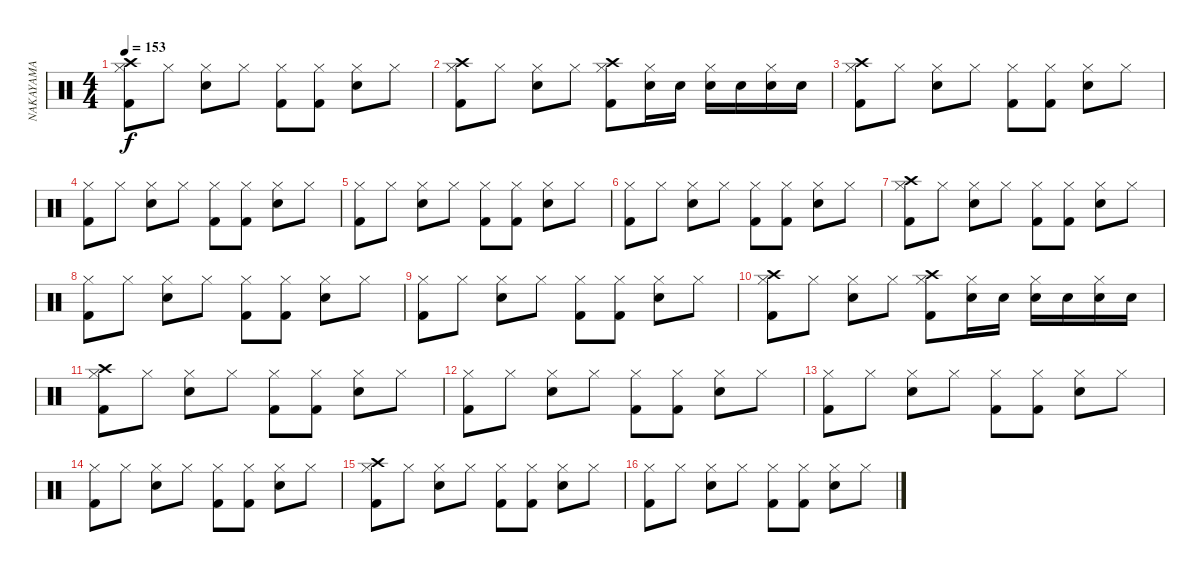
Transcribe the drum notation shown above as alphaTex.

\track ("NAKAYAMA" "NAKAYAMA") {instrument percussion}
\staff {score}
\articulation defaults
\ts (4 4)
\tempo 153
\clef neutral
\ks c
("Crash high (hit)" "Hi-Hat (closed)" "Kick (hit) 2").8{dy f} "Hi-Hat (closed)".8 ("Hi-Hat (closed)" "Snare (hit) 2").8 "Hi-Hat (closed)".8 ("Hi-Hat (closed)" "Kick (hit) 2").8 ("Hi-Hat (closed)" "Kick (hit) 2").8 ("Hi-Hat (closed)" "Snare (hit) 2").8 "Hi-Hat (closed)".8 |
("Crash high (hit)" "Hi-Hat (closed)" "Kick (hit) 2").8 "Hi-Hat (closed)".8 ("Hi-Hat (closed)" "Snare (hit) 2").8 "Hi-Hat (closed)".8 ("Crash high (hit)" "Hi-Hat (closed)" "Kick (hit) 2").8 ("Hi-Hat (closed)" "Snare (hit) 2").16 "Snare (hit) 2".16 ("Hi-Hat (closed)" "Snare (hit) 2").16 "Snare (hit) 2".16 ("Hi-Hat (closed)" "Snare (hit) 2").16 "Snare (hit) 2".16 |
("Crash high (hit)" "Hi-Hat (closed)" "Kick (hit) 2").8 "Hi-Hat (closed)".8 ("Hi-Hat (closed)" "Snare (hit) 2").8 "Hi-Hat (closed)".8 ("Hi-Hat (closed)" "Kick (hit) 2").8 ("Hi-Hat (closed)" "Kick (hit) 2").8 ("Hi-Hat (closed)" "Snare (hit) 2").8 "Hi-Hat (closed)".8 |
("Hi-Hat (closed)" "Kick (hit) 2").8 "Hi-Hat (closed)".8 ("Hi-Hat (closed)" "Snare (hit) 2").8 "Hi-Hat (closed)".8 ("Hi-Hat (closed)" "Kick (hit) 2").8 ("Hi-Hat (closed)" "Kick (hit) 2").8 ("Hi-Hat (closed)" "Snare (hit) 2").8 "Hi-Hat (closed)".8 |
("Hi-Hat (closed)" "Kick (hit) 2").8 "Hi-Hat (closed)".8 ("Hi-Hat (closed)" "Snare (hit) 2").8 "Hi-Hat (closed)".8 ("Hi-Hat (closed)" "Kick (hit) 2").8 ("Hi-Hat (closed)" "Kick (hit) 2").8 ("Hi-Hat (closed)" "Snare (hit) 2").8 "Hi-Hat (closed)".8 |
("Hi-Hat (closed)" "Kick (hit) 2").8 "Hi-Hat (closed)".8 ("Hi-Hat (closed)" "Snare (hit) 2").8 "Hi-Hat (closed)".8 ("Hi-Hat (closed)" "Kick (hit) 2").8 ("Hi-Hat (closed)" "Kick (hit) 2").8 ("Hi-Hat (closed)" "Snare (hit) 2").8 "Hi-Hat (closed)".8 |
("Crash high (hit)" "Hi-Hat (closed)" "Kick (hit) 2").8 "Hi-Hat (closed)".8 ("Hi-Hat (closed)" "Snare (hit) 2").8 "Hi-Hat (closed)".8 ("Hi-Hat (closed)" "Kick (hit) 2").8 ("Hi-Hat (closed)" "Kick (hit) 2").8 ("Hi-Hat (closed)" "Snare (hit) 2").8 "Hi-Hat (closed)".8 |
("Hi-Hat (closed)" "Kick (hit) 2").8 "Hi-Hat (closed)".8 ("Hi-Hat (closed)" "Snare (hit) 2").8 "Hi-Hat (closed)".8 ("Hi-Hat (closed)" "Kick (hit) 2").8 ("Hi-Hat (closed)" "Kick (hit) 2").8 ("Hi-Hat (closed)" "Snare (hit) 2").8 "Hi-Hat (closed)".8 |
("Hi-Hat (closed)" "Kick (hit) 2").8 "Hi-Hat (closed)".8 ("Hi-Hat (closed)" "Snare (hit) 2").8 "Hi-Hat (closed)".8 ("Hi-Hat (closed)" "Kick (hit) 2").8 ("Hi-Hat (closed)" "Kick (hit) 2").8 ("Hi-Hat (closed)" "Snare (hit) 2").8 "Hi-Hat (closed)".8 |
("Crash high (hit)" "Hi-Hat (closed)" "Kick (hit) 2").8 "Hi-Hat (closed)".8 ("Hi-Hat (closed)" "Snare (hit) 2").8 "Hi-Hat (closed)".8 ("Crash high (hit)" "Hi-Hat (closed)" "Kick (hit) 2").8 ("Hi-Hat (closed)" "Snare (hit) 2").16 "Snare (hit) 2".16 ("Hi-Hat (closed)" "Snare (hit) 2").16 "Snare (hit) 2".16 ("Hi-Hat (closed)" "Snare (hit) 2").16 "Snare (hit) 2".16 |
("Crash high (hit)" "Hi-Hat (closed)" "Kick (hit) 2").8 "Hi-Hat (closed)".8 ("Hi-Hat (closed)" "Snare (hit) 2").8 "Hi-Hat (closed)".8 ("Hi-Hat (closed)" "Kick (hit) 2").8 ("Hi-Hat (closed)" "Kick (hit) 2").8 ("Hi-Hat (closed)" "Snare (hit) 2").8 "Hi-Hat (closed)".8 |
("Hi-Hat (closed)" "Kick (hit) 2").8 "Hi-Hat (closed)".8 ("Hi-Hat (closed)" "Snare (hit) 2").8 "Hi-Hat (closed)".8 ("Hi-Hat (closed)" "Kick (hit) 2").8 ("Hi-Hat (closed)" "Kick (hit) 2").8 ("Hi-Hat (closed)" "Snare (hit) 2").8 "Hi-Hat (closed)".8 |
("Hi-Hat (closed)" "Kick (hit) 2").8 "Hi-Hat (closed)".8 ("Hi-Hat (closed)" "Snare (hit) 2").8 "Hi-Hat (closed)".8 ("Hi-Hat (closed)" "Kick (hit) 2").8 ("Hi-Hat (closed)" "Kick (hit) 2").8 ("Hi-Hat (closed)" "Snare (hit) 2").8 "Hi-Hat (closed)".8 |
("Hi-Hat (closed)" "Kick (hit) 2").8 "Hi-Hat (closed)".8 ("Hi-Hat (closed)" "Snare (hit) 2").8 "Hi-Hat (closed)".8 ("Hi-Hat (closed)" "Kick (hit) 2").8 ("Hi-Hat (closed)" "Kick (hit) 2").8 ("Hi-Hat (closed)" "Snare (hit) 2").8 "Hi-Hat (closed)".8 |
("Crash high (hit)" "Hi-Hat (closed)" "Kick (hit) 2").8 "Hi-Hat (closed)".8 ("Hi-Hat (closed)" "Snare (hit) 2").8 "Hi-Hat (closed)".8 ("Hi-Hat (closed)" "Kick (hit) 2").8 ("Hi-Hat (closed)" "Kick (hit) 2").8 ("Hi-Hat (closed)" "Snare (hit) 2").8 "Hi-Hat (closed)".8 |
("Hi-Hat (closed)" "Kick (hit) 2").8 "Hi-Hat (closed)".8 ("Hi-Hat (closed)" "Snare (hit) 2").8 "Hi-Hat (closed)".8 ("Hi-Hat (closed)" "Kick (hit) 2").8 ("Hi-Hat (closed)" "Kick (hit) 2").8 ("Hi-Hat (closed)" "Snare (hit) 2").8 "Hi-Hat (closed)".8
